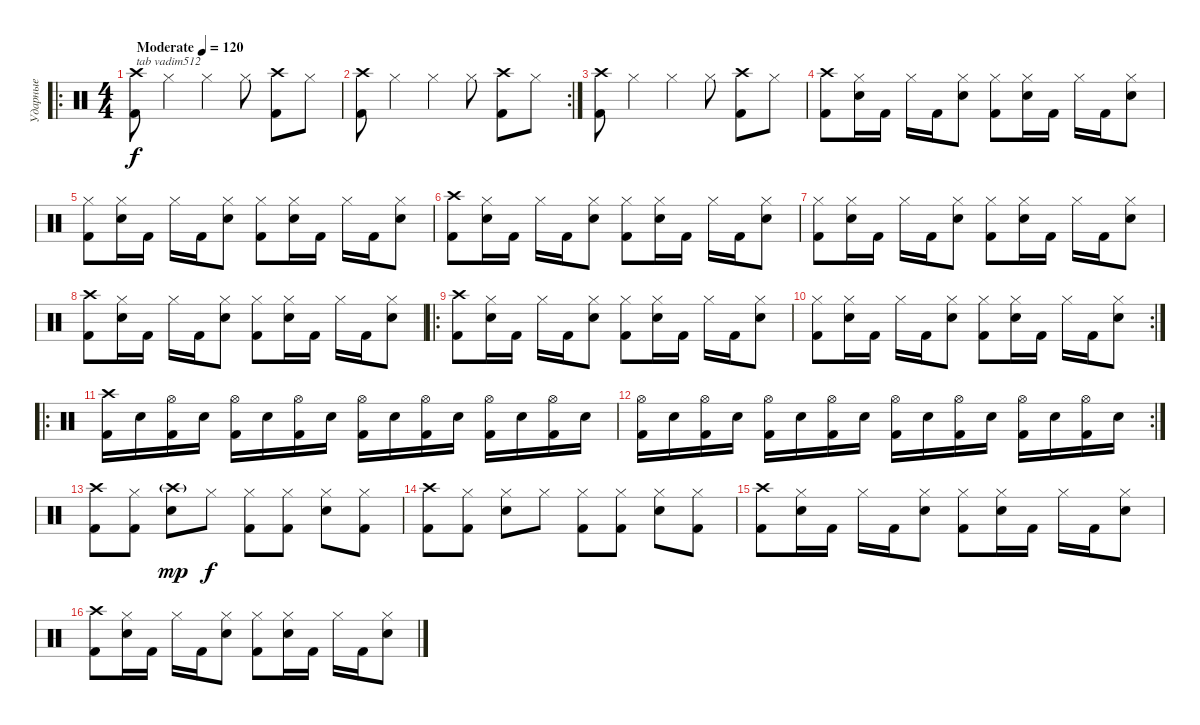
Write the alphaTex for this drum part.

\track ("Ударные" "Ударные") {instrument percussion}
\staff {score}
\articulation defaults
\ro
\ts (4 4)
\tempo (120 "Moderate")
\clef neutral
\ks c
("Kick (hit) 2" "Crash high (hit)").8{txt "tab vadim512" dy f} "Hi-Hat (closed)".4 "Hi-Hat (closed)".4 "Hi-Hat (closed)".8 ("Kick (hit) 2" "Crash high (hit)").8 "Hi-Hat (closed)".8 |
\rc 2
("Kick (hit) 2" "Crash high (hit)").8 "Hi-Hat (closed)".4 "Hi-Hat (closed)".4 "Hi-Hat (closed)".8 ("Kick (hit) 2" "Crash high (hit)").8 "Hi-Hat (closed)".8 |
("Kick (hit) 2" "Crash high (hit)").8 "Hi-Hat (closed)".4 "Hi-Hat (closed)".4 "Hi-Hat (closed)".8 ("Kick (hit) 2" "Crash high (hit)").8 "Hi-Hat (closed)".8 |
("Kick (hit) 2" "Crash high (hit)").8 ("Electric Snare (hit)" "Hi-Hat (closed)").16 "Kick (hit) 2".16 "Hi-Hat (closed)".16 "Kick (hit) 2".16 ("Electric Snare (hit)" "Hi-Hat (closed)").8 ("Kick (hit) 2" "Hi-Hat (closed)").8 ("Electric Snare (hit)" "Hi-Hat (closed)").16 "Kick (hit) 2".16 "Hi-Hat (closed)".16 "Kick (hit) 2".16 ("Electric Snare (hit)" "Hi-Hat (closed)").8 |
("Kick (hit) 2" "Hi-Hat (closed)").8 ("Electric Snare (hit)" "Hi-Hat (closed)").16 "Kick (hit) 2".16 "Hi-Hat (closed)".16 "Kick (hit) 2".16 ("Electric Snare (hit)" "Hi-Hat (closed)").8 ("Kick (hit) 2" "Hi-Hat (closed)").8 ("Electric Snare (hit)" "Hi-Hat (closed)").16 "Kick (hit) 2".16 "Hi-Hat (closed)".16 "Kick (hit) 2".16 ("Electric Snare (hit)" "Hi-Hat (closed)").8 |
("Kick (hit) 2" "Crash high (hit)").8 ("Electric Snare (hit)" "Hi-Hat (closed)").16 "Kick (hit) 2".16 "Hi-Hat (closed)".16 "Kick (hit) 2".16 ("Electric Snare (hit)" "Hi-Hat (closed)").8 ("Kick (hit) 2" "Hi-Hat (closed)").8 ("Electric Snare (hit)" "Hi-Hat (closed)").16 "Kick (hit) 2".16 "Hi-Hat (closed)".16 "Kick (hit) 2".16 ("Electric Snare (hit)" "Hi-Hat (closed)").8 |
("Kick (hit) 2" "Hi-Hat (closed)").8 ("Electric Snare (hit)" "Hi-Hat (closed)").16 "Kick (hit) 2".16 "Hi-Hat (closed)".16 "Kick (hit) 2".16 ("Electric Snare (hit)" "Hi-Hat (closed)").8 ("Kick (hit) 2" "Hi-Hat (closed)").8 ("Electric Snare (hit)" "Hi-Hat (closed)").16 "Kick (hit) 2".16 "Hi-Hat (closed)".16 "Kick (hit) 2".16 ("Electric Snare (hit)" "Hi-Hat (closed)").8 |
("Kick (hit) 2" "Crash high (hit)").8 ("Electric Snare (hit)" "Hi-Hat (closed)").16 "Kick (hit) 2".16 "Hi-Hat (closed)".16 "Kick (hit) 2".16 ("Electric Snare (hit)" "Hi-Hat (closed)").8 ("Kick (hit) 2" "Hi-Hat (closed)").8 ("Electric Snare (hit)" "Hi-Hat (closed)").16 "Kick (hit) 2".16 "Hi-Hat (closed)".16 "Kick (hit) 2".16 ("Electric Snare (hit)" "Hi-Hat (closed)").8 |
\ro
("Kick (hit) 2" "Crash high (hit)").8 ("Electric Snare (hit)" "Hi-Hat (closed)").16 "Kick (hit) 2".16 "Hi-Hat (closed)".16 "Kick (hit) 2".16 ("Electric Snare (hit)" "Hi-Hat (closed)").8 ("Kick (hit) 2" "Hi-Hat (closed)").8 ("Electric Snare (hit)" "Hi-Hat (closed)").16 "Kick (hit) 2".16 "Hi-Hat (closed)".16 "Kick (hit) 2".16 ("Electric Snare (hit)" "Hi-Hat (closed)").8 |
\rc 2
("Kick (hit) 2" "Hi-Hat (closed)").8 ("Electric Snare (hit)" "Hi-Hat (closed)").16 "Kick (hit) 2".16 "Hi-Hat (closed)".16 "Kick (hit) 2".16 ("Electric Snare (hit)" "Hi-Hat (closed)").8 ("Kick (hit) 2" "Hi-Hat (closed)").8 ("Electric Snare (hit)" "Hi-Hat (closed)").16 "Kick (hit) 2".16 "Hi-Hat (closed)".16 "Kick (hit) 2".16 ("Electric Snare (hit)" "Hi-Hat (closed)").8 |
\ro
("Kick (hit) 2" "Crash high (hit)").16 "Electric Snare (hit)".16 ("Kick (hit) 2" "Hi-Hat (open)").16 "Electric Snare (hit)".16 ("Kick (hit) 2" "Hi-Hat (open)").16 "Electric Snare (hit)".16 ("Kick (hit) 2" "Hi-Hat (open)").16 "Electric Snare (hit)".16 ("Kick (hit) 2" "Hi-Hat (open)").16 "Electric Snare (hit)".16 ("Kick (hit) 2" "Hi-Hat (open)").16 "Electric Snare (hit)".16 ("Kick (hit) 2" "Hi-Hat (open)").16 "Electric Snare (hit)".16 ("Kick (hit) 2" "Hi-Hat (open)").16 "Electric Snare (hit)".16 |
\rc 2
("Kick (hit) 2" "Hi-Hat (open)").16 "Electric Snare (hit)".16 ("Kick (hit) 2" "Hi-Hat (open)").16 "Electric Snare (hit)".16 ("Kick (hit) 2" "Hi-Hat (open)").16 "Electric Snare (hit)".16 ("Kick (hit) 2" "Hi-Hat (open)").16 "Electric Snare (hit)".16 ("Kick (hit) 2" "Hi-Hat (open)").16 "Electric Snare (hit)".16 ("Kick (hit) 2" "Hi-Hat (open)").16 "Electric Snare (hit)".16 ("Kick (hit) 2" "Hi-Hat (open)").16 "Electric Snare (hit)".16 ("Kick (hit) 2" "Hi-Hat (open)").16 "Electric Snare (hit)".16 |
("Kick (hit) 2" "Crash high (hit)").8 ("Kick (hit) 2" "Hi-Hat (closed)").8 ("Electric Snare (hit)" "Crash high (hit)"{g}).8{dy mp} "Hi-Hat (closed)".8{dy f} ("Kick (hit) 2" "Hi-Hat (closed)").8 ("Kick (hit) 2" "Hi-Hat (closed)").8 ("Electric Snare (hit)" "Hi-Hat (closed)").8 ("Kick (hit) 2" "Hi-Hat (closed)").8 |
("Kick (hit) 2" "Crash high (hit)").8 ("Kick (hit) 2" "Hi-Hat (closed)").8 ("Electric Snare (hit)" "Hi-Hat (closed)").8 "Hi-Hat (closed)".8 ("Kick (hit) 2" "Hi-Hat (closed)").8 ("Kick (hit) 2" "Hi-Hat (closed)").8 ("Electric Snare (hit)" "Hi-Hat (closed)").8 ("Kick (hit) 2" "Hi-Hat (closed)").8 |
("Kick (hit) 2" "Crash high (hit)").8 ("Electric Snare (hit)" "Hi-Hat (closed)").16 "Kick (hit) 2".16 "Hi-Hat (closed)".16 "Kick (hit) 2".16 ("Electric Snare (hit)" "Hi-Hat (closed)").8 ("Kick (hit) 2" "Hi-Hat (closed)").8 ("Electric Snare (hit)" "Hi-Hat (closed)").16 "Kick (hit) 2".16 "Hi-Hat (closed)".16 "Kick (hit) 2".16 ("Electric Snare (hit)" "Hi-Hat (closed)").8 |
("Kick (hit) 2" "Crash high (hit)").8 ("Electric Snare (hit)" "Hi-Hat (closed)").16 "Kick (hit) 2".16 "Hi-Hat (closed)".16 "Kick (hit) 2".16 ("Electric Snare (hit)" "Hi-Hat (closed)").8 ("Kick (hit) 2" "Hi-Hat (closed)").8 ("Electric Snare (hit)" "Hi-Hat (closed)").16 "Kick (hit) 2".16 "Hi-Hat (closed)".16 "Kick (hit) 2".16 ("Electric Snare (hit)" "Hi-Hat (closed)").8
